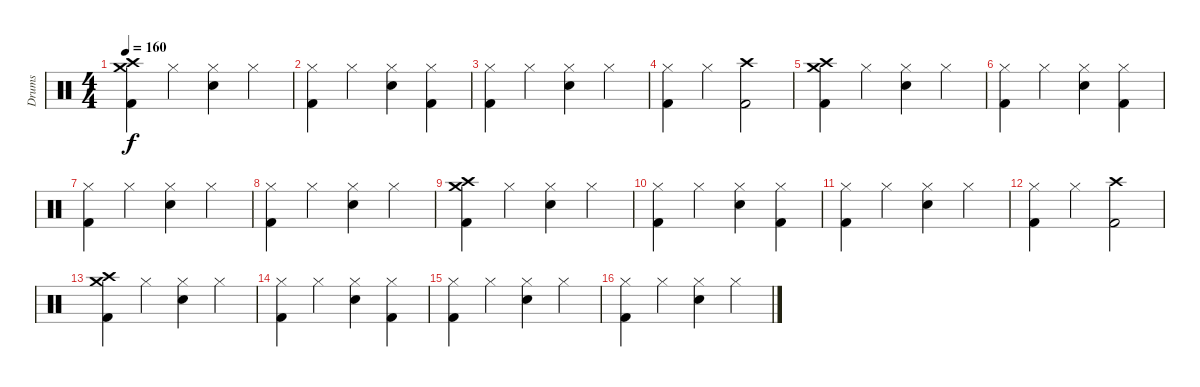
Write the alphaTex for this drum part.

\track ("Drums" "Drums") {instrument percussion}
\staff {score}
\articulation defaults
\ts (4 4)
\tempo 160
\clef neutral
\ks c
("Crash medium (hit)" "Crash high (hit)" "Kick (hit) 2").4{dy f} "Hi-Hat (closed)".4 ("Hi-Hat (closed)" "Snare (hit) 2").4 "Hi-Hat (closed)".4 |
("Hi-Hat (closed)" "Kick (hit) 2").4 "Hi-Hat (closed)".4 ("Hi-Hat (closed)" "Snare (hit) 2").4 ("Hi-Hat (closed)" "Kick (hit) 2").4 |
("Hi-Hat (closed)" "Kick (hit) 2").4 "Hi-Hat (closed)".4 ("Hi-Hat (closed)" "Snare (hit) 2").4 "Hi-Hat (closed)".4 |
("Hi-Hat (closed)" "Kick (hit) 2").4 "Hi-Hat (closed)".4 ("Crash high (hit)" "Kick (hit) 2").2 |
("Crash medium (hit)" "Crash high (hit)" "Kick (hit) 2").4 "Hi-Hat (closed)".4 ("Hi-Hat (closed)" "Snare (hit) 2").4 "Hi-Hat (closed)".4 |
("Hi-Hat (closed)" "Kick (hit) 2").4 "Hi-Hat (closed)".4 ("Hi-Hat (closed)" "Snare (hit) 2").4 ("Hi-Hat (closed)" "Kick (hit) 2").4 |
("Hi-Hat (closed)" "Kick (hit) 2").4 "Hi-Hat (closed)".4 ("Hi-Hat (closed)" "Snare (hit) 2").4 "Hi-Hat (closed)".4 |
("Hi-Hat (closed)" "Kick (hit) 2").4 "Hi-Hat (closed)".4 ("Hi-Hat (closed)" "Snare (hit) 2").4 "Hi-Hat (closed)".4 |
("Crash medium (hit)" "Crash high (hit)" "Kick (hit) 2").4 "Hi-Hat (closed)".4 ("Hi-Hat (closed)" "Snare (hit) 2").4 "Hi-Hat (closed)".4 |
("Hi-Hat (closed)" "Kick (hit) 2").4 "Hi-Hat (closed)".4 ("Hi-Hat (closed)" "Snare (hit) 2").4 ("Hi-Hat (closed)" "Kick (hit) 2").4 |
("Hi-Hat (closed)" "Kick (hit) 2").4 "Hi-Hat (closed)".4 ("Hi-Hat (closed)" "Snare (hit) 2").4 "Hi-Hat (closed)".4 |
("Hi-Hat (closed)" "Kick (hit) 2").4 "Hi-Hat (closed)".4 ("Crash high (hit)" "Kick (hit) 2").2 |
("Crash medium (hit)" "Crash high (hit)" "Kick (hit) 2").4 "Hi-Hat (closed)".4 ("Hi-Hat (closed)" "Snare (hit) 2").4 "Hi-Hat (closed)".4 |
("Hi-Hat (closed)" "Kick (hit) 2").4 "Hi-Hat (closed)".4 ("Hi-Hat (closed)" "Snare (hit) 2").4 ("Hi-Hat (closed)" "Kick (hit) 2").4 |
("Hi-Hat (closed)" "Kick (hit) 2").4 "Hi-Hat (closed)".4 ("Hi-Hat (closed)" "Snare (hit) 2").4 "Hi-Hat (closed)".4 |
("Hi-Hat (closed)" "Kick (hit) 2").4 "Hi-Hat (closed)".4 ("Hi-Hat (closed)" "Snare (hit) 2").4 "Hi-Hat (closed)".4
